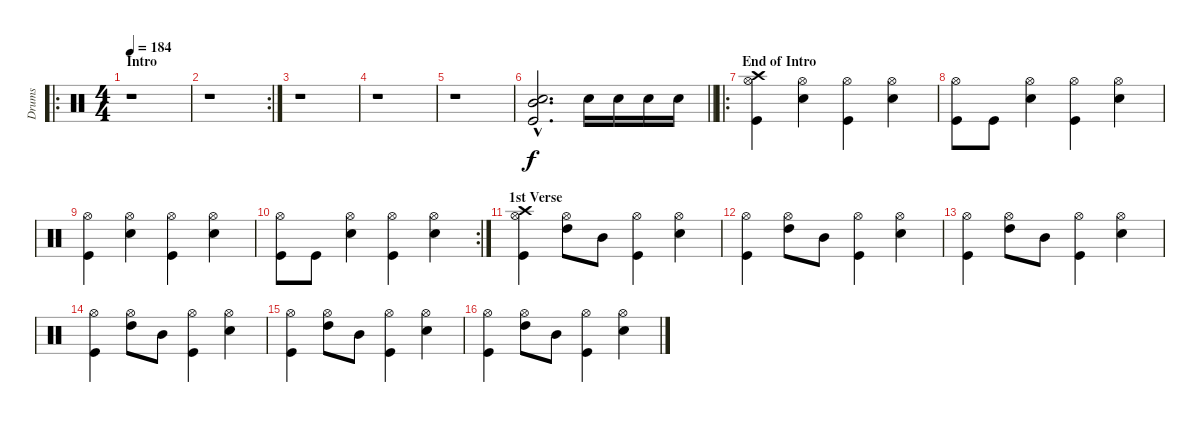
\track ("Drums" "Drums") {instrument percussion}
\staff {score}
\articulation defaults
\ro
\ts (4 4)
\section ("" "Intro")
\tempo 184
\clef neutral
\ks c
r.1{dy f} |
\rc 2
r.1 |
r.1 |
r.1 |
r.1 |
\barLineRight lightlight
("Mid Tom (hit)"{hac} "Electric Snare (hit)"{hac} "Kick (hit)"{hac}).2{d} "Electric Snare (hit)".16 "Electric Snare (hit)".16 "Electric Snare (hit)".16 "Electric Snare (hit)".16 |
\ro
\section ("" "End of Intro")
("Crash high (hit)" "Hi-Hat (open)" "Kick (hit)").4 ("Hi-Hat (open)" "Electric Snare (hit)").4 ("Hi-Hat (open)" "Kick (hit)").4 ("Hi-Hat (open)" "Electric Snare (hit)").4 |
("Hi-Hat (open)" "Kick (hit)").8 "Kick (hit)".8 ("Hi-Hat (open)" "Electric Snare (hit)").4 ("Hi-Hat (open)" "Kick (hit)").4 ("Hi-Hat (open)" "Electric Snare (hit)").4 |
("Hi-Hat (open)" "Kick (hit)").4 ("Hi-Hat (open)" "Electric Snare (hit)").4 ("Hi-Hat (open)" "Kick (hit)").4 ("Hi-Hat (open)" "Electric Snare (hit)").4 |
\rc 2
("Hi-Hat (open)" "Kick (hit)").8 "Kick (hit)".8 ("Hi-Hat (open)" "Electric Snare (hit)").4 ("Hi-Hat (open)" "Kick (hit)").4 ("Hi-Hat (open)" "Electric Snare (hit)").4 |
\section ("" "1st Verse")
("Crash high (hit)" "Hi-Hat (open)" "Kick (hit)").4 ("Hi-Hat (open)" "High Tom (hit)").8 "Mid Tom (hit)".8 ("Hi-Hat (open)" "Kick (hit)").4 ("Hi-Hat (open)" "Electric Snare (hit)").4 |
("Hi-Hat (open)" "Kick (hit)").4 ("Hi-Hat (open)" "High Tom (hit)").8 "Mid Tom (hit)".8 ("Hi-Hat (open)" "Kick (hit)").4 ("Hi-Hat (open)" "Electric Snare (hit)").4 |
("Hi-Hat (open)" "Kick (hit)").4 ("Hi-Hat (open)" "High Tom (hit)").8 "Mid Tom (hit)".8 ("Hi-Hat (open)" "Kick (hit)").4 ("Hi-Hat (open)" "Electric Snare (hit)").4 |
("Hi-Hat (open)" "Kick (hit)").4 ("Hi-Hat (open)" "High Tom (hit)").8 "Mid Tom (hit)".8 ("Hi-Hat (open)" "Kick (hit)").4 ("Hi-Hat (open)" "Electric Snare (hit)").4 |
("Hi-Hat (open)" "Kick (hit)").4 ("Hi-Hat (open)" "High Tom (hit)").8 "Mid Tom (hit)".8 ("Hi-Hat (open)" "Kick (hit)").4 ("Hi-Hat (open)" "Electric Snare (hit)").4 |
("Hi-Hat (open)" "Kick (hit)").4 ("Hi-Hat (open)" "High Tom (hit)").8 "Mid Tom (hit)".8 ("Hi-Hat (open)" "Kick (hit)").4 ("Hi-Hat (open)" "Electric Snare (hit)").4
